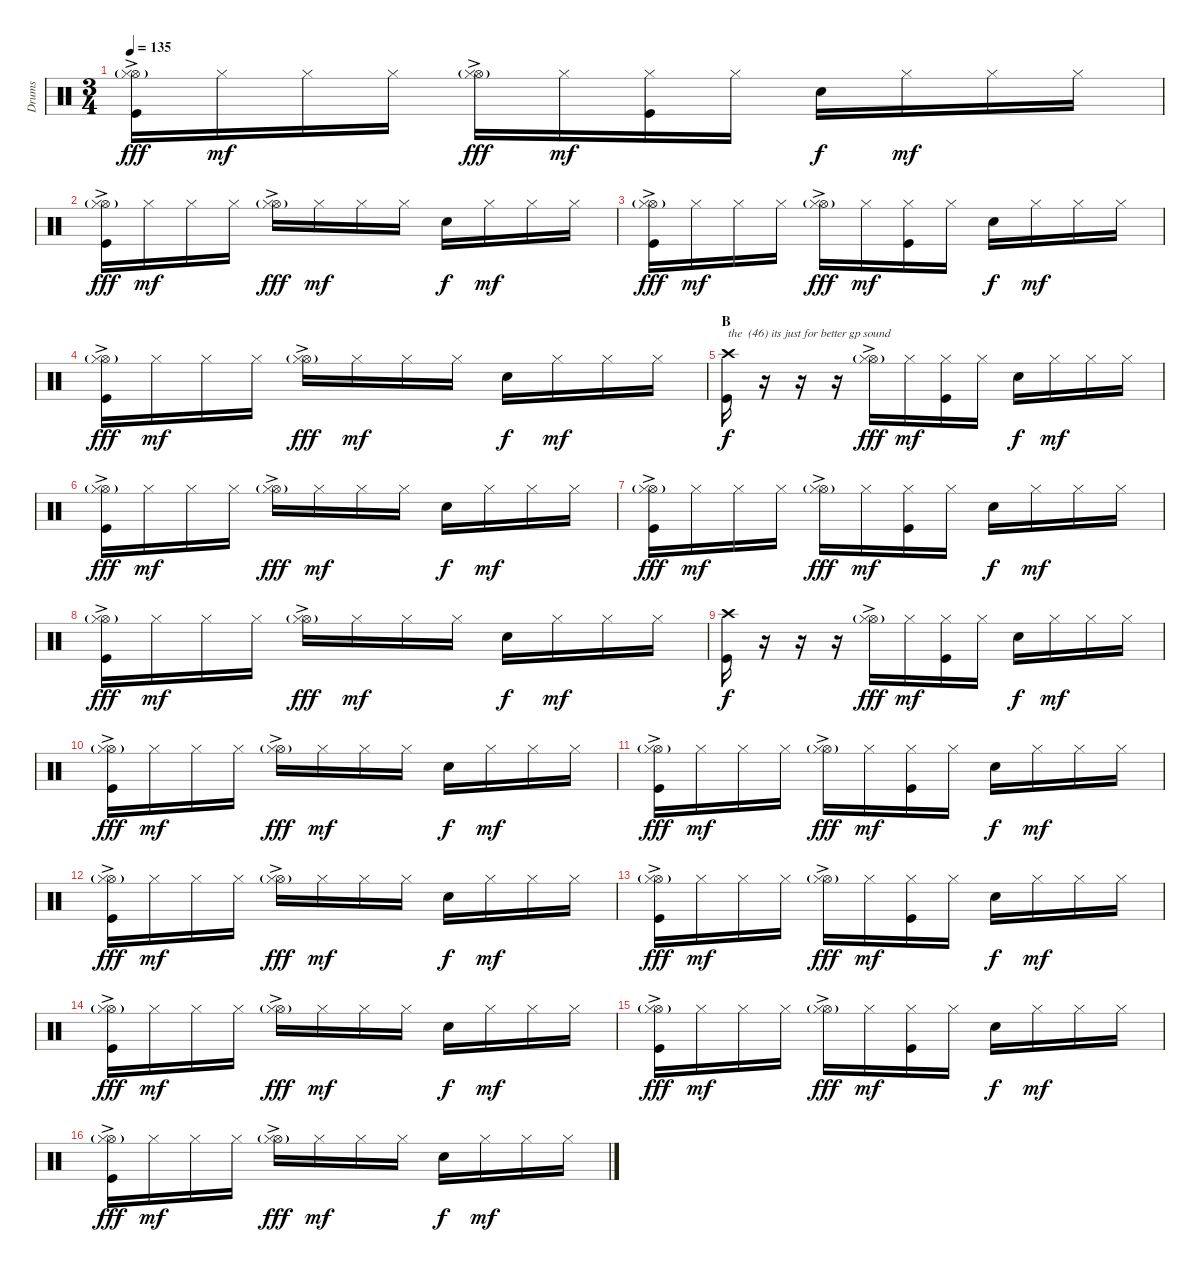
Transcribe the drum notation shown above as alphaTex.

\track ("Drums" "Drums") {instrument percussion}
\staff {score}
\articulation defaults
\ts (3 4)
\tempo 135
\clef neutral
\ks c
("Hi-Hat (open)"{g} "Hi-Hat (closed)"{ac} "Kick (hit)").16{dy fff} "Hi-Hat (closed)".16{dy mf} "Hi-Hat (closed)".16 "Hi-Hat (closed)".16 ("Hi-Hat (open)"{g} "Hi-Hat (closed)"{ac}).16{dy fff} "Hi-Hat (closed)".16{dy mf} ("Hi-Hat (closed)" "Kick (hit)").16 "Hi-Hat (closed)".16 "Snare (hit) 2".16{dy f} "Hi-Hat (closed)".16{dy mf} "Hi-Hat (closed)".16 "Hi-Hat (closed)".16 |
("Hi-Hat (open)"{g} "Hi-Hat (closed)"{ac} "Kick (hit)").16{dy fff} "Hi-Hat (closed)".16{dy mf} "Hi-Hat (closed)".16 "Hi-Hat (closed)".16 ("Hi-Hat (open)"{g} "Hi-Hat (closed)"{ac}).16{dy fff} "Hi-Hat (closed)".16{dy mf} "Hi-Hat (closed)".16 "Hi-Hat (closed)".16 "Snare (hit) 2".16{dy f} "Hi-Hat (closed)".16{dy mf} "Hi-Hat (closed)".16 "Hi-Hat (closed)".16 |
("Hi-Hat (open)"{g} "Hi-Hat (closed)"{ac} "Kick (hit)").16{dy fff} "Hi-Hat (closed)".16{dy mf} "Hi-Hat (closed)".16 "Hi-Hat (closed)".16 ("Hi-Hat (open)"{g} "Hi-Hat (closed)"{ac}).16{dy fff} "Hi-Hat (closed)".16{dy mf} ("Hi-Hat (closed)" "Kick (hit)").16 "Hi-Hat (closed)".16 "Snare (hit) 2".16{dy f} "Hi-Hat (closed)".16{dy mf} "Hi-Hat (closed)".16 "Hi-Hat (closed)".16 |
("Hi-Hat (open)"{g} "Hi-Hat (closed)"{ac} "Kick (hit)").16{dy fff} "Hi-Hat (closed)".16{dy mf} "Hi-Hat (closed)".16 "Hi-Hat (closed)".16 ("Hi-Hat (open)"{g} "Hi-Hat (closed)"{ac}).16{dy fff} "Hi-Hat (closed)".16{dy mf} "Hi-Hat (closed)".16 "Hi-Hat (closed)".16 "Snare (hit) 2".16{dy f} "Hi-Hat (closed)".16{dy mf} "Hi-Hat (closed)".16 "Hi-Hat (closed)".16 |
\section ("" "B")
("Crash high (hit)" "Kick (hit)").16{txt "the  (46) its just for better gp sound" dy f} r.16 r.16 r.16 ("Hi-Hat (open)"{g} "Hi-Hat (closed)"{ac}).16{dy fff} "Hi-Hat (closed)".16{dy mf} ("Hi-Hat (closed)" "Kick (hit)").16 "Hi-Hat (closed)".16 "Snare (hit) 2".16{dy f} "Hi-Hat (closed)".16{dy mf} "Hi-Hat (closed)".16 "Hi-Hat (closed)".16 |
("Hi-Hat (open)"{g} "Hi-Hat (closed)"{ac} "Kick (hit)").16{dy fff} "Hi-Hat (closed)".16{dy mf} "Hi-Hat (closed)".16 "Hi-Hat (closed)".16 ("Hi-Hat (open)"{g} "Hi-Hat (closed)"{ac}).16{dy fff} "Hi-Hat (closed)".16{dy mf} "Hi-Hat (closed)".16 "Hi-Hat (closed)".16 "Snare (hit) 2".16{dy f} "Hi-Hat (closed)".16{dy mf} "Hi-Hat (closed)".16 "Hi-Hat (closed)".16 |
("Hi-Hat (open)"{g} "Hi-Hat (closed)"{ac} "Kick (hit)").16{dy fff} "Hi-Hat (closed)".16{dy mf} "Hi-Hat (closed)".16 "Hi-Hat (closed)".16 ("Hi-Hat (open)"{g} "Hi-Hat (closed)"{ac}).16{dy fff} "Hi-Hat (closed)".16{dy mf} ("Hi-Hat (closed)" "Kick (hit)").16 "Hi-Hat (closed)".16 "Snare (hit) 2".16{dy f} "Hi-Hat (closed)".16{dy mf} "Hi-Hat (closed)".16 "Hi-Hat (closed)".16 |
("Hi-Hat (open)"{g} "Hi-Hat (closed)"{ac} "Kick (hit)").16{dy fff} "Hi-Hat (closed)".16{dy mf} "Hi-Hat (closed)".16 "Hi-Hat (closed)".16 ("Hi-Hat (open)"{g} "Hi-Hat (closed)"{ac}).16{dy fff} "Hi-Hat (closed)".16{dy mf} "Hi-Hat (closed)".16 "Hi-Hat (closed)".16 "Snare (hit) 2".16{dy f} "Hi-Hat (closed)".16{dy mf} "Hi-Hat (closed)".16 "Hi-Hat (closed)".16 |
("Crash high (hit)" "Kick (hit)").16{dy f} r.16 r.16 r.16 ("Hi-Hat (open)"{g} "Hi-Hat (closed)"{ac}).16{dy fff} "Hi-Hat (closed)".16{dy mf} ("Hi-Hat (closed)" "Kick (hit)").16 "Hi-Hat (closed)".16 "Snare (hit) 2".16{dy f} "Hi-Hat (closed)".16{dy mf} "Hi-Hat (closed)".16 "Hi-Hat (closed)".16 |
("Hi-Hat (open)"{g} "Hi-Hat (closed)"{ac} "Kick (hit)").16{dy fff} "Hi-Hat (closed)".16{dy mf} "Hi-Hat (closed)".16 "Hi-Hat (closed)".16 ("Hi-Hat (open)"{g} "Hi-Hat (closed)"{ac}).16{dy fff} "Hi-Hat (closed)".16{dy mf} "Hi-Hat (closed)".16 "Hi-Hat (closed)".16 "Snare (hit) 2".16{dy f} "Hi-Hat (closed)".16{dy mf} "Hi-Hat (closed)".16 "Hi-Hat (closed)".16 |
("Hi-Hat (open)"{g} "Hi-Hat (closed)"{ac} "Kick (hit)").16{dy fff} "Hi-Hat (closed)".16{dy mf} "Hi-Hat (closed)".16 "Hi-Hat (closed)".16 ("Hi-Hat (open)"{g} "Hi-Hat (closed)"{ac}).16{dy fff} "Hi-Hat (closed)".16{dy mf} ("Hi-Hat (closed)" "Kick (hit)").16 "Hi-Hat (closed)".16 "Snare (hit) 2".16{dy f} "Hi-Hat (closed)".16{dy mf} "Hi-Hat (closed)".16 "Hi-Hat (closed)".16 |
("Hi-Hat (open)"{g} "Hi-Hat (closed)"{ac} "Kick (hit)").16{dy fff} "Hi-Hat (closed)".16{dy mf} "Hi-Hat (closed)".16 "Hi-Hat (closed)".16 ("Hi-Hat (open)"{g} "Hi-Hat (closed)"{ac}).16{dy fff} "Hi-Hat (closed)".16{dy mf} "Hi-Hat (closed)".16 "Hi-Hat (closed)".16 "Snare (hit) 2".16{dy f} "Hi-Hat (closed)".16{dy mf} "Hi-Hat (closed)".16 "Hi-Hat (closed)".16 |
("Hi-Hat (open)"{g} "Hi-Hat (closed)"{ac} "Kick (hit)").16{dy fff} "Hi-Hat (closed)".16{dy mf} "Hi-Hat (closed)".16 "Hi-Hat (closed)".16 ("Hi-Hat (open)"{g} "Hi-Hat (closed)"{ac}).16{dy fff} "Hi-Hat (closed)".16{dy mf} ("Hi-Hat (closed)" "Kick (hit)").16 "Hi-Hat (closed)".16 "Snare (hit) 2".16{dy f} "Hi-Hat (closed)".16{dy mf} "Hi-Hat (closed)".16 "Hi-Hat (closed)".16 |
("Hi-Hat (open)"{g} "Hi-Hat (closed)"{ac} "Kick (hit)").16{dy fff} "Hi-Hat (closed)".16{dy mf} "Hi-Hat (closed)".16 "Hi-Hat (closed)".16 ("Hi-Hat (open)"{g} "Hi-Hat (closed)"{ac}).16{dy fff} "Hi-Hat (closed)".16{dy mf} "Hi-Hat (closed)".16 "Hi-Hat (closed)".16 "Snare (hit) 2".16{dy f} "Hi-Hat (closed)".16{dy mf} "Hi-Hat (closed)".16 "Hi-Hat (closed)".16 |
("Hi-Hat (open)"{g} "Hi-Hat (closed)"{ac} "Kick (hit)").16{dy fff} "Hi-Hat (closed)".16{dy mf} "Hi-Hat (closed)".16 "Hi-Hat (closed)".16 ("Hi-Hat (open)"{g} "Hi-Hat (closed)"{ac}).16{dy fff} "Hi-Hat (closed)".16{dy mf} ("Hi-Hat (closed)" "Kick (hit)").16 "Hi-Hat (closed)".16 "Snare (hit) 2".16{dy f} "Hi-Hat (closed)".16{dy mf} "Hi-Hat (closed)".16 "Hi-Hat (closed)".16 |
("Hi-Hat (open)"{g} "Hi-Hat (closed)"{ac} "Kick (hit)").16{dy fff} "Hi-Hat (closed)".16{dy mf} "Hi-Hat (closed)".16 "Hi-Hat (closed)".16 ("Hi-Hat (open)"{g} "Hi-Hat (closed)"{ac}).16{dy fff} "Hi-Hat (closed)".16{dy mf} "Hi-Hat (closed)".16 "Hi-Hat (closed)".16 "Snare (hit) 2".16{dy f} "Hi-Hat (closed)".16{dy mf} "Hi-Hat (closed)".16 "Hi-Hat (closed)".16
